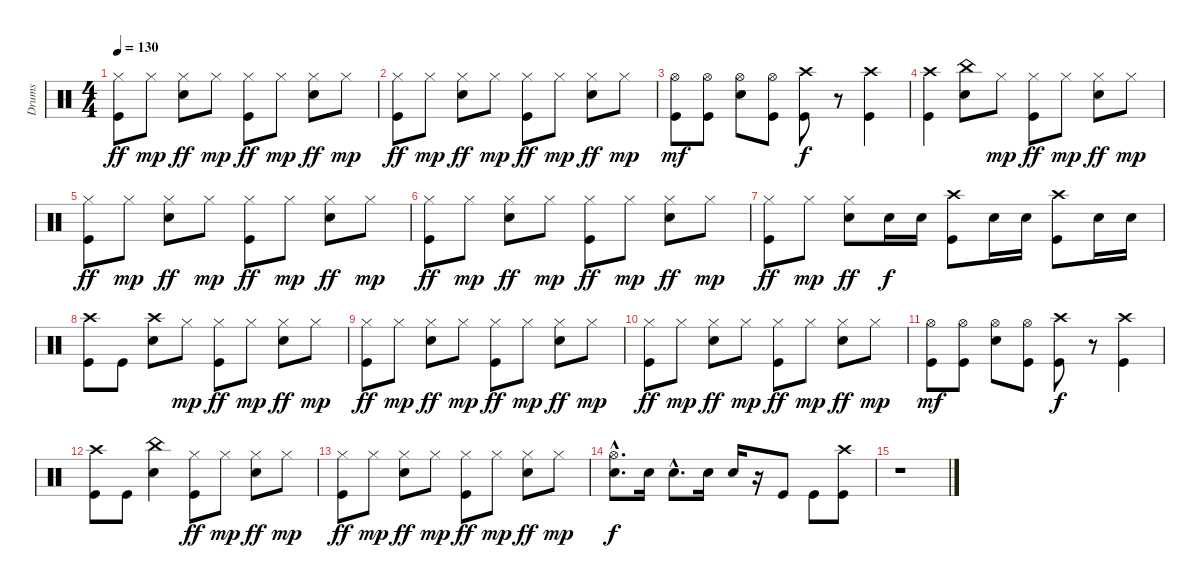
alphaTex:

\track ("Drums" "Drums") {instrument percussion}
\staff {score}
\articulation defaults
\ts (4 4)
\tempo 130
\clef neutral
\ks c
("Hi-Hat (closed)" "Kick (hit)").8{dy ff} "Hi-Hat (closed)".8{dy mp} ("Hi-Hat (closed)" "Snare (hit) 2").8{dy ff} "Hi-Hat (closed)".8{dy mp} ("Hi-Hat (closed)" "Kick (hit)").8{dy ff} "Hi-Hat (closed)".8{dy mp} ("Hi-Hat (closed)" "Snare (hit) 2").8{dy ff} "Hi-Hat (closed)".8{dy mp} |
("Hi-Hat (closed)" "Kick (hit)").8{dy ff} "Hi-Hat (closed)".8{dy mp} ("Hi-Hat (closed)" "Snare (hit) 2").8{dy ff} "Hi-Hat (closed)".8{dy mp} ("Hi-Hat (closed)" "Kick (hit)").8{dy ff} "Hi-Hat (closed)".8{dy mp} ("Hi-Hat (closed)" "Snare (hit) 2").8{dy ff} "Hi-Hat (closed)".8{dy mp} |
("Hi-Hat (open)" "Kick (hit)").8{dy mf} ("Hi-Hat (open)" "Kick (hit)").8 ("Hi-Hat (open)" "Snare (hit) 2").8 ("Hi-Hat (open)" "Kick (hit)").8 ("Crash high (hit)" "Kick (hit)").8{dy f} r.8 ("Crash high (hit)" "Kick (hit)").4 |
("Crash high (hit)" "Kick (hit)").4 ("China (hit)" "Snare (hit) 2").8 "Hi-Hat (closed)".8{dy mp} ("Hi-Hat (closed)" "Kick (hit)").8{dy ff} "Hi-Hat (closed)".8{dy mp} ("Hi-Hat (closed)" "Snare (hit) 2").8{dy ff} "Hi-Hat (closed)".8{dy mp} |
("Hi-Hat (closed)" "Kick (hit)").8{dy ff} "Hi-Hat (closed)".8{dy mp} ("Hi-Hat (closed)" "Snare (hit) 2").8{dy ff} "Hi-Hat (closed)".8{dy mp} ("Hi-Hat (closed)" "Kick (hit)").8{dy ff} "Hi-Hat (closed)".8{dy mp} ("Hi-Hat (closed)" "Snare (hit) 2").8{dy ff} "Hi-Hat (closed)".8{dy mp} |
("Hi-Hat (closed)" "Kick (hit)").8{dy ff} "Hi-Hat (closed)".8{dy mp} ("Hi-Hat (closed)" "Snare (hit) 2").8{dy ff} "Hi-Hat (closed)".8{dy mp} ("Hi-Hat (closed)" "Kick (hit)").8{dy ff} "Hi-Hat (closed)".8{dy mp} ("Hi-Hat (closed)" "Snare (hit) 2").8{dy ff} "Hi-Hat (closed)".8{dy mp} |
("Hi-Hat (closed)" "Kick (hit)").8{dy ff} "Hi-Hat (closed)".8{dy mp} ("Hi-Hat (closed)" "Snare (hit) 2").8{dy ff} "Snare (hit) 2".16{dy f} "Snare (hit) 2".16 ("Crash high (hit)" "Kick (hit)").8 "Snare (hit) 2".16 "Snare (hit) 2".16 ("Crash high (hit)" "Kick (hit)").8 "Snare (hit) 2".16 "Snare (hit) 2".16 |
("Crash high (hit)" "Kick (hit)").8 "Kick (hit)".8 ("Crash high (hit)" "Snare (hit) 2").8 "Hi-Hat (closed)".8{dy mp} ("Hi-Hat (closed)" "Kick (hit)").8{dy ff} "Hi-Hat (closed)".8{dy mp} ("Hi-Hat (closed)" "Snare (hit) 2").8{dy ff} "Hi-Hat (closed)".8{dy mp} |
("Hi-Hat (closed)" "Kick (hit)").8{dy ff} "Hi-Hat (closed)".8{dy mp} ("Hi-Hat (closed)" "Snare (hit) 2").8{dy ff} "Hi-Hat (closed)".8{dy mp} ("Hi-Hat (closed)" "Kick (hit)").8{dy ff} "Hi-Hat (closed)".8{dy mp} ("Hi-Hat (closed)" "Snare (hit) 2").8{dy ff} "Hi-Hat (closed)".8{dy mp} |
("Hi-Hat (closed)" "Kick (hit)").8{dy ff} "Hi-Hat (closed)".8{dy mp} ("Hi-Hat (closed)" "Snare (hit) 2").8{dy ff} "Hi-Hat (closed)".8{dy mp} ("Hi-Hat (closed)" "Kick (hit)").8{dy ff} "Hi-Hat (closed)".8{dy mp} ("Hi-Hat (closed)" "Snare (hit) 2").8{dy ff} "Hi-Hat (closed)".8{dy mp} |
("Hi-Hat (open)" "Kick (hit)").8{dy mf} ("Hi-Hat (open)" "Kick (hit)").8 ("Hi-Hat (open)" "Snare (hit) 2").8 ("Hi-Hat (open)" "Kick (hit)").8 ("Crash high (hit)" "Kick (hit)").8{dy f} r.8 ("Crash high (hit)" "Kick (hit)").4 |
("Crash high (hit)" "Kick (hit)").8 "Kick (hit)".8 ("China (hit)" "Snare (hit) 2").4 ("Hi-Hat (closed)" "Kick (hit)").8{dy ff} "Hi-Hat (closed)".8{dy mp} ("Hi-Hat (closed)" "Snare (hit) 2").8{dy ff} "Hi-Hat (closed)".8{dy mp} |
("Hi-Hat (closed)" "Kick (hit)").8{dy ff} "Hi-Hat (closed)".8{dy mp} ("Hi-Hat (closed)" "Snare (hit) 2").8{dy ff} "Hi-Hat (closed)".8{dy mp} ("Hi-Hat (closed)" "Kick (hit)").8{dy ff} "Hi-Hat (closed)".8{dy mp} ("Hi-Hat (closed)" "Snare (hit) 2").8{dy ff} "Hi-Hat (closed)".8{dy mp} |
("Hi-Hat (open)"{hac} "Snare (hit) 2"{hac}).8{d dy f} "Snare (hit) 2".16 "Snare (hit) 2"{hac}.8{d} "Snare (hit) 2".16 "Snare (hit) 2".16 r.16 "Kick (hit)".8 "Kick (hit)".8 ("Crash high (hit)" "Kick (hit)").8 |
r.1
